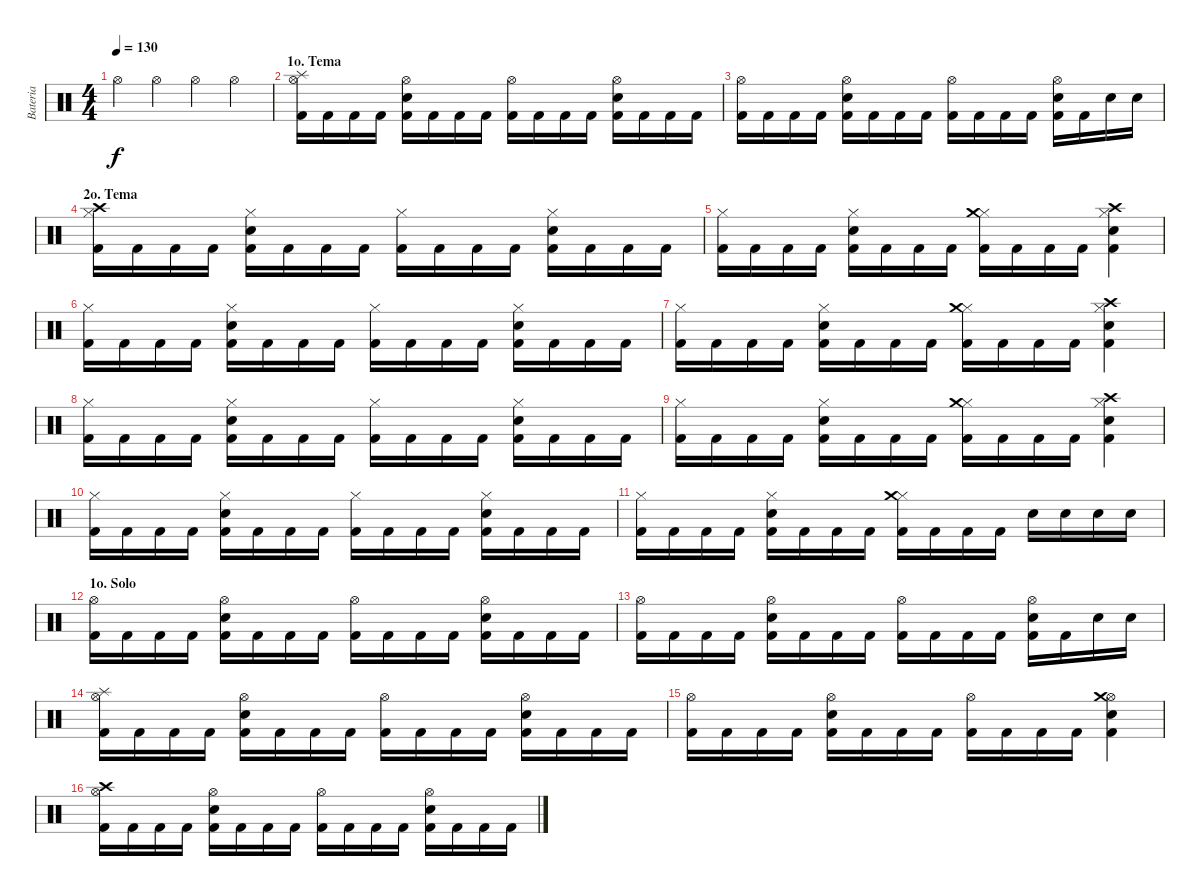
\track ("Bateria" "Bateria") {instrument percussion}
\staff {score}
\articulation defaults
\ts (4 4)
\tempo 130
\clef neutral
\ks c "Hi-Hat (open)".4{dy f} "Hi-Hat (open)".4 "Hi-Hat (open)".4 "Hi-Hat (open)".4
|
\section ("" "1o. Tema")
("Hi-Hat (open)" "Kick (hit) 2" "Splash (hit)").16 "Kick (hit) 2".16 "Kick (hit) 2".16 "Kick (hit) 2".16 ("Hi-Hat (open)" "Snare (hit) 2" "Kick (hit) 2").16 "Kick (hit) 2".16 "Kick (hit) 2".16 "Kick (hit) 2".16 ("Hi-Hat (open)" "Kick (hit) 2").16 "Kick (hit) 2".16 "Kick (hit) 2".16 "Kick (hit) 2".16 ("Hi-Hat (open)" "Snare (hit) 2" "Kick (hit) 2").16 "Kick (hit) 2".16 "Kick (hit) 2".16 "Kick (hit) 2".16 |
("Hi-Hat (open)" "Kick (hit) 2").16 "Kick (hit) 2".16 "Kick (hit) 2".16 "Kick (hit) 2".16 ("Hi-Hat (open)" "Snare (hit) 2" "Kick (hit) 2").16 "Kick (hit) 2".16 "Kick (hit) 2".16 "Kick (hit) 2".16 ("Hi-Hat (open)" "Kick (hit) 2").16 "Kick (hit) 2".16 "Kick (hit) 2".16 "Kick (hit) 2".16 ("Hi-Hat (open)" "Snare (hit) 2" "Kick (hit) 2").16 "Kick (hit) 2".16 "Snare (hit) 2".16 "Snare (hit) 2".16 |
\section ("" "2o. Tema")
("Hi-Hat (closed)" "Kick (hit) 2" "Crash high (hit)").16 "Kick (hit) 2".16 "Kick (hit) 2".16 "Kick (hit) 2".16 ("Hi-Hat (closed)" "Snare (hit) 2" "Kick (hit) 2").16 "Kick (hit) 2".16 "Kick (hit) 2".16 "Kick (hit) 2".16 ("Hi-Hat (closed)" "Kick (hit) 2").16 "Kick (hit) 2".16 "Kick (hit) 2".16 "Kick (hit) 2".16 ("Hi-Hat (closed)" "Snare (hit) 2" "Kick (hit) 2").16 "Kick (hit) 2".16 "Kick (hit) 2".16 "Kick (hit) 2".16 |
("Hi-Hat (closed)" "Kick (hit) 2").16 "Kick (hit) 2".16 "Kick (hit) 2".16 "Kick (hit) 2".16 ("Hi-Hat (closed)" "Snare (hit) 2" "Kick (hit) 2").16 "Kick (hit) 2".16 "Kick (hit) 2".16 "Kick (hit) 2".16 ("Hi-Hat (closed)" "Kick (hit) 2" "Crash medium (hit)").16 "Kick (hit) 2".16 "Kick (hit) 2".16 "Kick (hit) 2".16 ("Hi-Hat (closed)" "Snare (hit) 2" "Kick (hit) 2" "Crash high (hit)").4 |
("Hi-Hat (closed)" "Kick (hit) 2").16 "Kick (hit) 2".16 "Kick (hit) 2".16 "Kick (hit) 2".16 ("Hi-Hat (closed)" "Snare (hit) 2" "Kick (hit) 2").16 "Kick (hit) 2".16 "Kick (hit) 2".16 "Kick (hit) 2".16 ("Hi-Hat (closed)" "Kick (hit) 2").16 "Kick (hit) 2".16 "Kick (hit) 2".16 "Kick (hit) 2".16 ("Hi-Hat (closed)" "Snare (hit) 2" "Kick (hit) 2").16 "Kick (hit) 2".16 "Kick (hit) 2".16 "Kick (hit) 2".16 |
("Hi-Hat (closed)" "Kick (hit) 2").16 "Kick (hit) 2".16 "Kick (hit) 2".16 "Kick (hit) 2".16 ("Hi-Hat (closed)" "Snare (hit) 2" "Kick (hit) 2").16 "Kick (hit) 2".16 "Kick (hit) 2".16 "Kick (hit) 2".16 ("Hi-Hat (closed)" "Kick (hit) 2" "Crash medium (hit)").16 "Kick (hit) 2".16 "Kick (hit) 2".16 "Kick (hit) 2".16 ("Hi-Hat (closed)" "Snare (hit) 2" "Kick (hit) 2" "Crash high (hit)").4 |
("Hi-Hat (closed)" "Kick (hit) 2").16 "Kick (hit) 2".16 "Kick (hit) 2".16 "Kick (hit) 2".16 ("Hi-Hat (closed)" "Snare (hit) 2" "Kick (hit) 2").16 "Kick (hit) 2".16 "Kick (hit) 2".16 "Kick (hit) 2".16 ("Hi-Hat (closed)" "Kick (hit) 2").16 "Kick (hit) 2".16 "Kick (hit) 2".16 "Kick (hit) 2".16 ("Hi-Hat (closed)" "Snare (hit) 2" "Kick (hit) 2").16 "Kick (hit) 2".16 "Kick (hit) 2".16 "Kick (hit) 2".16 |
("Hi-Hat (closed)" "Kick (hit) 2").16 "Kick (hit) 2".16 "Kick (hit) 2".16 "Kick (hit) 2".16 ("Hi-Hat (closed)" "Snare (hit) 2" "Kick (hit) 2").16 "Kick (hit) 2".16 "Kick (hit) 2".16 "Kick (hit) 2".16 ("Hi-Hat (closed)" "Kick (hit) 2" "Crash medium (hit)").16 "Kick (hit) 2".16 "Kick (hit) 2".16 "Kick (hit) 2".16 ("Hi-Hat (closed)" "Snare (hit) 2" "Kick (hit) 2" "Crash high (hit)").4 |
("Hi-Hat (closed)" "Kick (hit) 2").16 "Kick (hit) 2".16 "Kick (hit) 2".16 "Kick (hit) 2".16 ("Hi-Hat (closed)" "Snare (hit) 2" "Kick (hit) 2").16 "Kick (hit) 2".16 "Kick (hit) 2".16 "Kick (hit) 2".16 ("Hi-Hat (closed)" "Kick (hit) 2").16 "Kick (hit) 2".16 "Kick (hit) 2".16 "Kick (hit) 2".16 ("Hi-Hat (closed)" "Snare (hit) 2" "Kick (hit) 2").16 "Kick (hit) 2".16 "Kick (hit) 2".16 "Kick (hit) 2".16 |
("Hi-Hat (closed)" "Kick (hit) 2").16 "Kick (hit) 2".16 "Kick (hit) 2".16 "Kick (hit) 2".16 ("Hi-Hat (closed)" "Snare (hit) 2" "Kick (hit) 2").16 "Kick (hit) 2".16 "Kick (hit) 2".16 "Kick (hit) 2".16 ("Hi-Hat (closed)" "Kick (hit) 2" "Crash medium (hit)").16 "Kick (hit) 2".16 "Kick (hit) 2".16 "Kick (hit) 2".16 "Snare (hit) 2".16 "Snare (hit) 2".16 "Snare (hit) 2".16 "Snare (hit) 2".16 |
\section ("" "1o. Solo")
("Hi-Hat (open)" "Kick (hit) 2").16 "Kick (hit) 2".16 "Kick (hit) 2".16 "Kick (hit) 2".16 ("Hi-Hat (open)" "Snare (hit) 2" "Kick (hit) 2").16 "Kick (hit) 2".16 "Kick (hit) 2".16 "Kick (hit) 2".16 ("Hi-Hat (open)" "Kick (hit) 2").16 "Kick (hit) 2".16 "Kick (hit) 2".16 "Kick (hit) 2".16 ("Hi-Hat (open)" "Snare (hit) 2" "Kick (hit) 2").16 "Kick (hit) 2".16 "Kick (hit) 2".16 "Kick (hit) 2".16 |
("Hi-Hat (open)" "Kick (hit) 2").16 "Kick (hit) 2".16 "Kick (hit) 2".16 "Kick (hit) 2".16 ("Hi-Hat (open)" "Snare (hit) 2" "Kick (hit) 2").16 "Kick (hit) 2".16 "Kick (hit) 2".16 "Kick (hit) 2".16 ("Hi-Hat (open)" "Kick (hit) 2").16 "Kick (hit) 2".16 "Kick (hit) 2".16 "Kick (hit) 2".16 ("Hi-Hat (open)" "Snare (hit) 2" "Kick (hit) 2").16 "Kick (hit) 2".16 "Snare (hit) 2".16 "Snare (hit) 2".16 |
("Hi-Hat (open)" "Kick (hit) 2" "Splash (hit)").16 "Kick (hit) 2".16 "Kick (hit) 2".16 "Kick (hit) 2".16 ("Hi-Hat (open)" "Snare (hit) 2" "Kick (hit) 2").16 "Kick (hit) 2".16 "Kick (hit) 2".16 "Kick (hit) 2".16 ("Hi-Hat (open)" "Kick (hit) 2").16 "Kick (hit) 2".16 "Kick (hit) 2".16 "Kick (hit) 2".16 ("Hi-Hat (open)" "Snare (hit) 2" "Kick (hit) 2").16 "Kick (hit) 2".16 "Kick (hit) 2".16 "Kick (hit) 2".16 |
("Hi-Hat (open)" "Kick (hit) 2").16 "Kick (hit) 2".16 "Kick (hit) 2".16 "Kick (hit) 2".16 ("Hi-Hat (open)" "Snare (hit) 2" "Kick (hit) 2").16 "Kick (hit) 2".16 "Kick (hit) 2".16 "Kick (hit) 2".16 ("Hi-Hat (open)" "Kick (hit) 2").16 "Kick (hit) 2".16 "Kick (hit) 2".16 "Kick (hit) 2".16 ("Hi-Hat (open)" "Snare (hit) 2" "Kick (hit) 2" "Crash medium (hit)").4 |
("Hi-Hat (open)" "Kick (hit) 2" "Crash high (hit)").16 "Kick (hit) 2".16 "Kick (hit) 2".16 "Kick (hit) 2".16 ("Hi-Hat (open)" "Snare (hit) 2" "Kick (hit) 2").16 "Kick (hit) 2".16 "Kick (hit) 2".16 "Kick (hit) 2".16 ("Hi-Hat (open)" "Kick (hit) 2").16 "Kick (hit) 2".16 "Kick (hit) 2".16 "Kick (hit) 2".16 ("Hi-Hat (open)" "Snare (hit) 2" "Kick (hit) 2").16 "Kick (hit) 2".16 "Kick (hit) 2".16 "Kick (hit) 2".16
